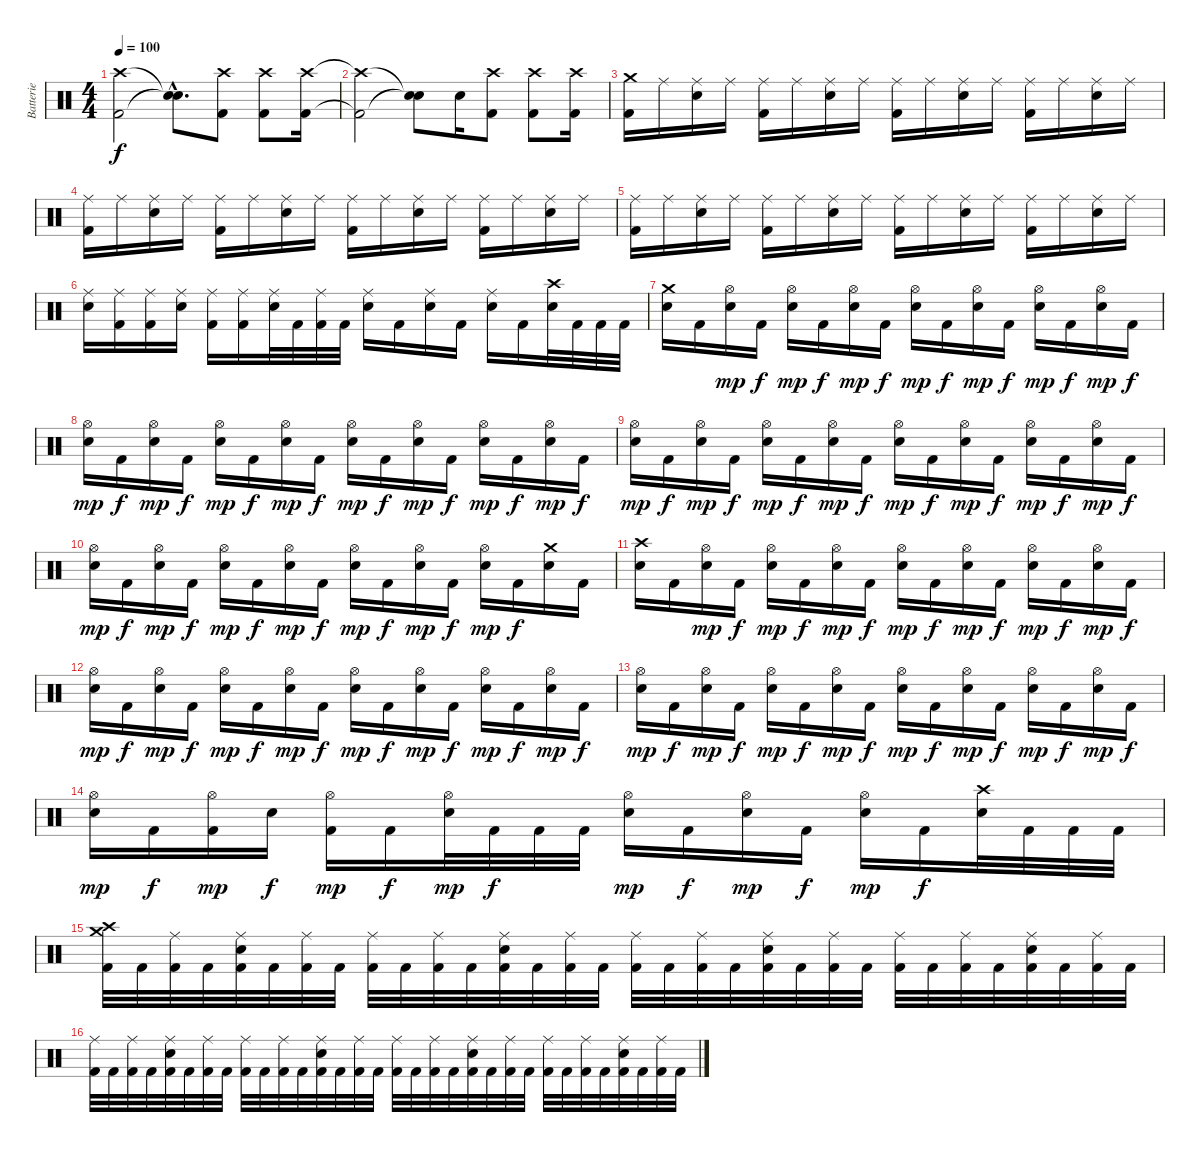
\track ("Batterie" "Batterie") {instrument percussion}
\staff {score}
\articulation defaults
\ts (4 4)
\tempo 100
\clef neutral
\ks c
("Crash high (hit)"{t} "Kick (hit) 2"{t}).2{dy f} ("Snare (hit)"{hac t} "Snare (hit)"{hac t}).8{d} ("Crash high (hit)" "Kick (hit) 2").8 ("Crash high (hit)" "Kick (hit) 2").8 ("Crash high (hit)" "Kick (hit) 2").16 |
("Crash high (hit)"{t} "Kick (hit) 2"{t}).2 ("Snare (hit)"{t} "Snare (hit)"{t}).8 "Electric Snare (hit)".16 ("Crash high (hit)" "Kick (hit) 2").8 ("Crash high (hit)" "Kick (hit) 2").8 ("Crash high (hit)" "Kick (hit) 2").16 |
("Crash medium (hit)" "Kick (hit) 2").16 "Ride (middle)".16 ("Ride (middle)" "Electric Snare (hit)").16 "Ride (middle)".16 ("Ride (middle)" "Kick (hit) 2").16 "Ride (middle)".16 ("Ride (middle)" "Electric Snare (hit)").16 "Ride (middle)".16 ("Ride (middle)" "Kick (hit) 2").16 "Ride (middle)".16 ("Ride (middle)" "Electric Snare (hit)").16 "Ride (middle)".16 ("Ride (middle)" "Kick (hit) 2").16 "Ride (middle)".16 ("Ride (middle)" "Electric Snare (hit)").16 "Ride (middle)".16 |
("Ride (middle)" "Kick (hit) 2").16 "Ride (middle)".16 ("Ride (middle)" "Electric Snare (hit)").16 "Ride (middle)".16 ("Ride (middle)" "Kick (hit) 2").16 "Ride (middle)".16 ("Ride (middle)" "Electric Snare (hit)").16 "Ride (middle)".16 ("Ride (middle)" "Kick (hit) 2").16 "Ride (middle)".16 ("Ride (middle)" "Electric Snare (hit)").16 "Ride (middle)".16 ("Ride (middle)" "Kick (hit) 2").16 "Ride (middle)".16 ("Ride (middle)" "Electric Snare (hit)").16 "Ride (middle)".16 |
("Ride (middle)" "Kick (hit) 2").16 "Ride (middle)".16 ("Ride (middle)" "Electric Snare (hit)").16 "Ride (middle)".16 ("Ride (middle)" "Kick (hit) 2").16 "Ride (middle)".16 ("Ride (middle)" "Electric Snare (hit)").16 "Ride (middle)".16 ("Ride (middle)" "Kick (hit) 2").16 "Ride (middle)".16 ("Ride (middle)" "Electric Snare (hit)").16 "Ride (middle)".16 ("Ride (middle)" "Kick (hit) 2").16 "Ride (middle)".16 ("Ride (middle)" "Electric Snare (hit)").16 "Ride (middle)".16 |
("Ride (middle)" "Electric Snare (hit)").16 ("Ride (middle)" "Kick (hit) 2").16 ("Ride (middle)" "Kick (hit) 2").16 ("Ride (middle)" "Electric Snare (hit)").16 ("Ride (middle)" "Kick (hit) 2").16 ("Ride (middle)" "Kick (hit) 2").16 ("Ride (middle)" "Electric Snare (hit)").32 "Kick (hit) 2".32 ("Ride (middle)" "Kick (hit) 2").32 "Kick (hit) 2".32 ("Ride (middle)" "Electric Snare (hit)").16 "Kick (hit) 2".16 ("Ride (middle)" "Electric Snare (hit)").16 "Kick (hit) 2".16 ("Ride (middle)" "Electric Snare (hit)").16 "Kick (hit) 2".16 ("Crash high (hit)" "Electric Snare (hit)").32 "Kick (hit) 2".32 "Kick (hit) 2".32 "Kick (hit) 2".32 |
("Crash medium (hit)" "Electric Snare (hit)").16 "Kick (hit) 2".16 ("Hi-Hat (open)" "Electric Snare (hit)").16{dy mp} "Kick (hit) 2".16{dy f} ("Hi-Hat (open)" "Electric Snare (hit)").16{dy mp} "Kick (hit) 2".16{dy f} ("Hi-Hat (open)" "Electric Snare (hit)").16{dy mp} "Kick (hit) 2".16{dy f} ("Hi-Hat (open)" "Electric Snare (hit)").16{dy mp} "Kick (hit) 2".16{dy f} ("Hi-Hat (open)" "Electric Snare (hit)").16{dy mp} "Kick (hit) 2".16{dy f} ("Hi-Hat (open)" "Electric Snare (hit)").16{dy mp} "Kick (hit) 2".16{dy f} ("Hi-Hat (open)" "Electric Snare (hit)").16{dy mp} "Kick (hit) 2".16{dy f} |
("Hi-Hat (open)" "Electric Snare (hit)").16{dy mp} "Kick (hit) 2".16{dy f} ("Hi-Hat (open)" "Electric Snare (hit)").16{dy mp} "Kick (hit) 2".16{dy f} ("Hi-Hat (open)" "Electric Snare (hit)").16{dy mp} "Kick (hit) 2".16{dy f} ("Hi-Hat (open)" "Electric Snare (hit)").16{dy mp} "Kick (hit) 2".16{dy f} ("Hi-Hat (open)" "Electric Snare (hit)").16{dy mp} "Kick (hit) 2".16{dy f} ("Hi-Hat (open)" "Electric Snare (hit)").16{dy mp} "Kick (hit) 2".16{dy f} ("Hi-Hat (open)" "Electric Snare (hit)").16{dy mp} "Kick (hit) 2".16{dy f} ("Hi-Hat (open)" "Electric Snare (hit)").16{dy mp} "Kick (hit) 2".16{dy f} |
("Hi-Hat (open)" "Electric Snare (hit)").16{dy mp} "Kick (hit) 2".16{dy f} ("Hi-Hat (open)" "Electric Snare (hit)").16{dy mp} "Kick (hit) 2".16{dy f} ("Hi-Hat (open)" "Electric Snare (hit)").16{dy mp} "Kick (hit) 2".16{dy f} ("Hi-Hat (open)" "Electric Snare (hit)").16{dy mp} "Kick (hit) 2".16{dy f} ("Hi-Hat (open)" "Electric Snare (hit)").16{dy mp} "Kick (hit) 2".16{dy f} ("Hi-Hat (open)" "Electric Snare (hit)").16{dy mp} "Kick (hit) 2".16{dy f} ("Hi-Hat (open)" "Electric Snare (hit)").16{dy mp} "Kick (hit) 2".16{dy f} ("Hi-Hat (open)" "Electric Snare (hit)").16{dy mp} "Kick (hit) 2".16{dy f} |
("Hi-Hat (open)" "Electric Snare (hit)").16{dy mp} "Kick (hit) 2".16{dy f} ("Hi-Hat (open)" "Electric Snare (hit)").16{dy mp} "Kick (hit) 2".16{dy f} ("Hi-Hat (open)" "Electric Snare (hit)").16{dy mp} "Kick (hit) 2".16{dy f} ("Hi-Hat (open)" "Electric Snare (hit)").16{dy mp} "Kick (hit) 2".16{dy f} ("Hi-Hat (open)" "Electric Snare (hit)").16{dy mp} "Kick (hit) 2".16{dy f} ("Hi-Hat (open)" "Electric Snare (hit)").16{dy mp} "Kick (hit) 2".16{dy f} ("Hi-Hat (open)" "Electric Snare (hit)").16{dy mp} "Kick (hit) 2".16{dy f} ("Crash medium (hit)" "Electric Snare (hit)").16 "Kick (hit) 2".16 |
("Crash high (hit)" "Electric Snare (hit)").16 "Kick (hit) 2".16 ("Hi-Hat (open)" "Electric Snare (hit)").16{dy mp} "Kick (hit) 2".16{dy f} ("Hi-Hat (open)" "Electric Snare (hit)").16{dy mp} "Kick (hit) 2".16{dy f} ("Hi-Hat (open)" "Electric Snare (hit)").16{dy mp} "Kick (hit) 2".16{dy f} ("Hi-Hat (open)" "Electric Snare (hit)").16{dy mp} "Kick (hit) 2".16{dy f} ("Hi-Hat (open)" "Electric Snare (hit)").16{dy mp} "Kick (hit) 2".16{dy f} ("Hi-Hat (open)" "Electric Snare (hit)").16{dy mp} "Kick (hit) 2".16{dy f} ("Hi-Hat (open)" "Electric Snare (hit)").16{dy mp} "Kick (hit) 2".16{dy f} |
("Hi-Hat (open)" "Electric Snare (hit)").16{dy mp} "Kick (hit) 2".16{dy f} ("Hi-Hat (open)" "Electric Snare (hit)").16{dy mp} "Kick (hit) 2".16{dy f} ("Hi-Hat (open)" "Electric Snare (hit)").16{dy mp} "Kick (hit) 2".16{dy f} ("Hi-Hat (open)" "Electric Snare (hit)").16{dy mp} "Kick (hit) 2".16{dy f} ("Hi-Hat (open)" "Electric Snare (hit)").16{dy mp} "Kick (hit) 2".16{dy f} ("Hi-Hat (open)" "Electric Snare (hit)").16{dy mp} "Kick (hit) 2".16{dy f} ("Hi-Hat (open)" "Electric Snare (hit)").16{dy mp} "Kick (hit) 2".16{dy f} ("Hi-Hat (open)" "Electric Snare (hit)").16{dy mp} "Kick (hit) 2".16{dy f} |
("Hi-Hat (open)" "Electric Snare (hit)").16{dy mp} "Kick (hit) 2".16{dy f} ("Hi-Hat (open)" "Electric Snare (hit)").16{dy mp} "Kick (hit) 2".16{dy f} ("Hi-Hat (open)" "Electric Snare (hit)").16{dy mp} "Kick (hit) 2".16{dy f} ("Hi-Hat (open)" "Electric Snare (hit)").16{dy mp} "Kick (hit) 2".16{dy f} ("Hi-Hat (open)" "Electric Snare (hit)").16{dy mp} "Kick (hit) 2".16{dy f} ("Hi-Hat (open)" "Electric Snare (hit)").16{dy mp} "Kick (hit) 2".16{dy f} ("Hi-Hat (open)" "Electric Snare (hit)").16{dy mp} "Kick (hit) 2".16{dy f} ("Hi-Hat (open)" "Electric Snare (hit)").16{dy mp} "Kick (hit) 2".16{dy f} |
("Hi-Hat (open)" "Electric Snare (hit)").16{dy mp} "Kick (hit) 2".16{dy f} ("Hi-Hat (open)" "Kick (hit) 2").16{dy mp} "Electric Snare (hit)".16{dy f} ("Hi-Hat (open)" "Kick (hit) 2").16{dy mp} "Kick (hit) 2".16{dy f} ("Hi-Hat (open)" "Electric Snare (hit)").32{dy mp} "Kick (hit) 2".32{dy f} "Kick (hit) 2".32 "Kick (hit) 2".32 ("Hi-Hat (open)" "Electric Snare (hit)").16{dy mp} "Kick (hit) 2".16{dy f} ("Hi-Hat (open)" "Electric Snare (hit)").16{dy mp} "Kick (hit) 2".16{dy f} ("Hi-Hat (open)" "Electric Snare (hit)").16{dy mp} "Kick (hit) 2".16{dy f} ("Crash high (hit)" "Electric Snare (hit)").32 "Kick (hit) 2".32 "Kick (hit) 2".32 "Kick (hit) 2".32 |
("Crash high (hit)" "Crash medium (hit)" "Kick (hit) 2").32 "Kick (hit) 2".32 ("Ride (middle)" "Kick (hit) 2").32 "Kick (hit) 2".32 ("Ride (middle)" "Electric Snare (hit)" "Kick (hit) 2").32 "Kick (hit) 2".32 ("Ride (middle)" "Kick (hit) 2").32 "Kick (hit) 2".32 ("Ride (middle)" "Kick (hit) 2").32 "Kick (hit) 2".32 ("Ride (middle)" "Kick (hit) 2").32 "Kick (hit) 2".32 ("Ride (middle)" "Electric Snare (hit)" "Kick (hit) 2").32 "Kick (hit) 2".32 ("Ride (middle)" "Kick (hit) 2").32 "Kick (hit) 2".32 ("Ride (middle)" "Kick (hit) 2").32 "Kick (hit) 2".32 ("Ride (middle)" "Kick (hit) 2").32 "Kick (hit) 2".32 ("Ride (middle)" "Electric Snare (hit)" "Kick (hit) 2").32 "Kick (hit) 2".32 ("Ride (middle)" "Kick (hit) 2").32 "Kick (hit) 2".32 ("Ride (middle)" "Kick (hit) 2").32 "Kick (hit) 2".32 ("Ride (middle)" "Kick (hit) 2").32 "Kick (hit) 2".32 ("Ride (middle)" "Electric Snare (hit)" "Kick (hit) 2").32 "Kick (hit) 2".32 ("Ride (middle)" "Kick (hit) 2").32 "Kick (hit) 2".32 |
("Ride (middle)" "Kick (hit) 2").32 "Kick (hit) 2".32 ("Ride (middle)" "Kick (hit) 2").32 "Kick (hit) 2".32 ("Ride (middle)" "Electric Snare (hit)" "Kick (hit) 2").32 "Kick (hit) 2".32 ("Ride (middle)" "Kick (hit) 2").32 "Kick (hit) 2".32 ("Ride (middle)" "Kick (hit) 2").32 "Kick (hit) 2".32 ("Ride (middle)" "Kick (hit) 2").32 "Kick (hit) 2".32 ("Ride (middle)" "Electric Snare (hit)" "Kick (hit) 2").32 "Kick (hit) 2".32 ("Ride (middle)" "Kick (hit) 2").32 "Kick (hit) 2".32 ("Ride (middle)" "Kick (hit) 2").32 "Kick (hit) 2".32 ("Ride (middle)" "Kick (hit) 2").32 "Kick (hit) 2".32 ("Ride (middle)" "Electric Snare (hit)" "Kick (hit) 2").32 "Kick (hit) 2".32 ("Ride (middle)" "Kick (hit) 2").32 "Kick (hit) 2".32 ("Ride (middle)" "Kick (hit) 2").32 "Kick (hit) 2".32 ("Ride (middle)" "Kick (hit) 2").32 "Kick (hit) 2".32 ("Ride (middle)" "Electric Snare (hit)" "Kick (hit) 2").32 "Kick (hit) 2".32 ("Ride (middle)" "Kick (hit) 2").32 "Kick (hit) 2".32
